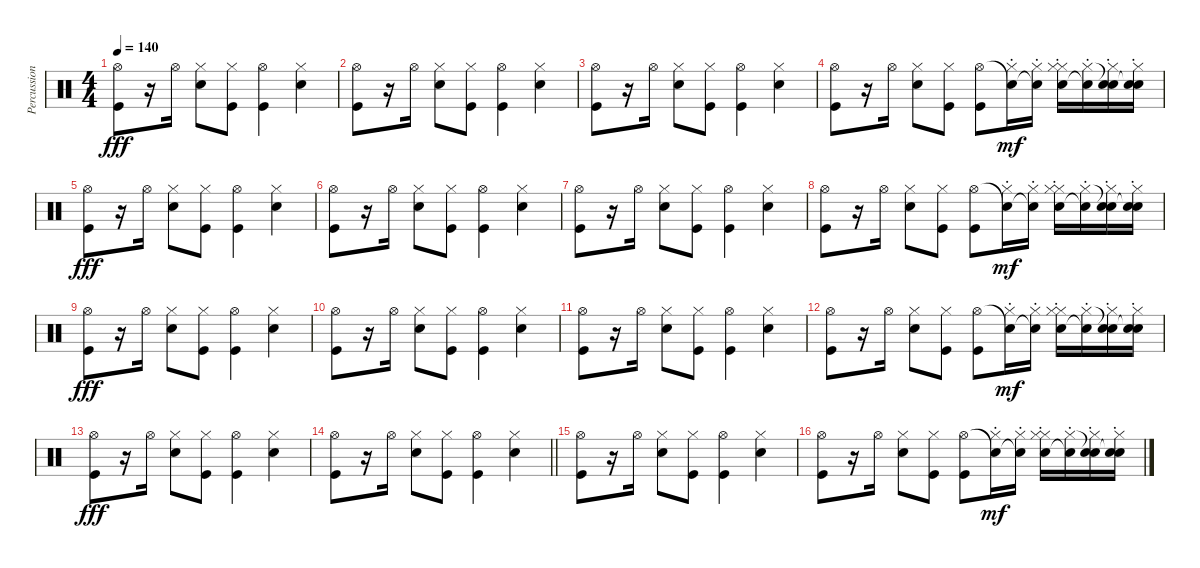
\track ("Percussion" "Percussion") {instrument percussion}
\staff {score}
\articulation defaults
\ts (4 4)
\tempo 140
\clef neutral
\ks c
("Hi-Hat (open)" "Kick (hit)").8{dy fff volume 15} r.16 "Hi-Hat (open)".16 ("Snare (hit) 2" "Hi-Hat (closed)").8 ("Hi-Hat (closed)" "Kick (hit)").8 ("Hi-Hat (open)" "Kick (hit)").4 ("Snare (hit) 2" "Hi-Hat (closed)").4 |
("Hi-Hat (open)" "Kick (hit)").8 r.16 "Hi-Hat (open)".16 ("Snare (hit) 2" "Hi-Hat (closed)").8 ("Hi-Hat (closed)" "Kick (hit)").8 ("Hi-Hat (open)" "Kick (hit)").4 ("Snare (hit) 2" "Hi-Hat (closed)").4 |
("Hi-Hat (open)" "Kick (hit)").8 r.16 "Hi-Hat (open)".16 ("Snare (hit) 2" "Hi-Hat (closed)").8 ("Hi-Hat (closed)" "Kick (hit)").8 ("Hi-Hat (open)" "Kick (hit)").4 ("Snare (hit) 2" "Hi-Hat (closed)").4 |
("Hi-Hat (open)" "Kick (hit)").8 r.16 "Hi-Hat (open)".16 ("Snare (hit) 2" "Hi-Hat (closed)").8 ("Hi-Hat (closed)" "Kick (hit)").8 ("Hi-Hat (open)" "Kick (hit)").8 ("Snare (hit)"{t} "Hi-Hat (closed)"{st}).16{dy mf} ("Snare (hit)"{t} "Hi-Hat (closed)"{st}).16 ("Snare (hit) 2" "Hi-Hat (closed)" "Hi-Hat (closed)"{st}).16 ("Snare (hit)"{t} "Hi-Hat (closed)"{st}).16 ("Snare (hit) 2" "Snare (hit)"{t} "Hi-Hat (closed)"{st}).16 ("Snare (hit) 2" "Snare (hit)"{t} "Hi-Hat (closed)"{st}).16 |
("Hi-Hat (open)" "Kick (hit)").8{dy fff volume 15} r.16 "Hi-Hat (open)".16 ("Snare (hit) 2" "Hi-Hat (closed)").8 ("Hi-Hat (closed)" "Kick (hit)").8 ("Hi-Hat (open)" "Kick (hit)").4 ("Snare (hit) 2" "Hi-Hat (closed)").4 |
("Hi-Hat (open)" "Kick (hit)").8 r.16 "Hi-Hat (open)".16 ("Snare (hit) 2" "Hi-Hat (closed)").8 ("Hi-Hat (closed)" "Kick (hit)").8 ("Hi-Hat (open)" "Kick (hit)").4 ("Snare (hit) 2" "Hi-Hat (closed)").4 |
("Hi-Hat (open)" "Kick (hit)").8 r.16 "Hi-Hat (open)".16 ("Snare (hit) 2" "Hi-Hat (closed)").8 ("Hi-Hat (closed)" "Kick (hit)").8 ("Hi-Hat (open)" "Kick (hit)").4 ("Snare (hit) 2" "Hi-Hat (closed)").4 |
("Hi-Hat (open)" "Kick (hit)").8 r.16 "Hi-Hat (open)".16 ("Snare (hit) 2" "Hi-Hat (closed)").8 ("Hi-Hat (closed)" "Kick (hit)").8 ("Hi-Hat (open)" "Kick (hit)").8 ("Snare (hit)"{t} "Hi-Hat (closed)"{st}).16{dy mf} ("Snare (hit)"{t} "Hi-Hat (closed)"{st}).16 ("Snare (hit) 2" "Hi-Hat (closed)" "Hi-Hat (closed)"{st}).16 ("Snare (hit)"{t} "Hi-Hat (closed)"{st}).16 ("Snare (hit) 2" "Snare (hit)"{t} "Hi-Hat (closed)"{st}).16 ("Snare (hit) 2" "Snare (hit)"{t} "Hi-Hat (closed)"{st}).16 |
("Hi-Hat (open)" "Kick (hit)").8{dy fff volume 15} r.16 "Hi-Hat (open)".16 ("Snare (hit) 2" "Hi-Hat (closed)").8 ("Hi-Hat (closed)" "Kick (hit)").8 ("Hi-Hat (open)" "Kick (hit)").4 ("Snare (hit) 2" "Hi-Hat (closed)").4 |
("Hi-Hat (open)" "Kick (hit)").8 r.16 "Hi-Hat (open)".16 ("Snare (hit) 2" "Hi-Hat (closed)").8 ("Hi-Hat (closed)" "Kick (hit)").8 ("Hi-Hat (open)" "Kick (hit)").4 ("Snare (hit) 2" "Hi-Hat (closed)").4 |
("Hi-Hat (open)" "Kick (hit)").8 r.16 "Hi-Hat (open)".16 ("Snare (hit) 2" "Hi-Hat (closed)").8 ("Hi-Hat (closed)" "Kick (hit)").8 ("Hi-Hat (open)" "Kick (hit)").4 ("Snare (hit) 2" "Hi-Hat (closed)").4 |
("Hi-Hat (open)" "Kick (hit)").8 r.16 "Hi-Hat (open)".16 ("Snare (hit) 2" "Hi-Hat (closed)").8 ("Hi-Hat (closed)" "Kick (hit)").8 ("Hi-Hat (open)" "Kick (hit)").8 ("Snare (hit)"{t} "Hi-Hat (closed)"{st}).16{dy mf} ("Snare (hit)"{t} "Hi-Hat (closed)"{st}).16 ("Snare (hit) 2" "Hi-Hat (closed)" "Hi-Hat (closed)"{st}).16 ("Snare (hit)"{t} "Hi-Hat (closed)"{st}).16 ("Snare (hit) 2" "Snare (hit)"{t} "Hi-Hat (closed)"{st}).16 ("Snare (hit) 2" "Snare (hit)"{t} "Hi-Hat (closed)"{st}).16 |
("Hi-Hat (open)" "Kick (hit)").8{dy fff volume 15} r.16 "Hi-Hat (open)".16 ("Snare (hit) 2" "Hi-Hat (closed)").8 ("Hi-Hat (closed)" "Kick (hit)").8 ("Hi-Hat (open)" "Kick (hit)").4 ("Snare (hit) 2" "Hi-Hat (closed)").4 |
\barLineRight lightlight
("Hi-Hat (open)" "Kick (hit)").8 r.16 "Hi-Hat (open)".16 ("Snare (hit) 2" "Hi-Hat (closed)").8 ("Hi-Hat (closed)" "Kick (hit)").8 ("Hi-Hat (open)" "Kick (hit)").4 ("Snare (hit) 2" "Hi-Hat (closed)").4 |
\section ("" "")
("Hi-Hat (open)" "Kick (hit)").8 r.16 "Hi-Hat (open)".16 ("Snare (hit) 2" "Hi-Hat (closed)").8 ("Hi-Hat (closed)" "Kick (hit)").8 ("Hi-Hat (open)" "Kick (hit)").4 ("Snare (hit) 2" "Hi-Hat (closed)").4 |
("Hi-Hat (open)" "Kick (hit)").8 r.16 "Hi-Hat (open)".16 ("Snare (hit) 2" "Hi-Hat (closed)").8 ("Hi-Hat (closed)" "Kick (hit)").8 ("Hi-Hat (open)" "Kick (hit)").8 ("Snare (hit)"{t} "Hi-Hat (closed)"{st}).16{dy mf} ("Snare (hit)"{t} "Hi-Hat (closed)"{st}).16 ("Snare (hit) 2" "Hi-Hat (closed)" "Hi-Hat (closed)"{st}).16 ("Snare (hit)"{t} "Hi-Hat (closed)"{st}).16 ("Snare (hit) 2" "Snare (hit)"{t} "Hi-Hat (closed)"{st}).16 ("Snare (hit) 2" "Snare (hit)"{t} "Hi-Hat (closed)"{st}).16
